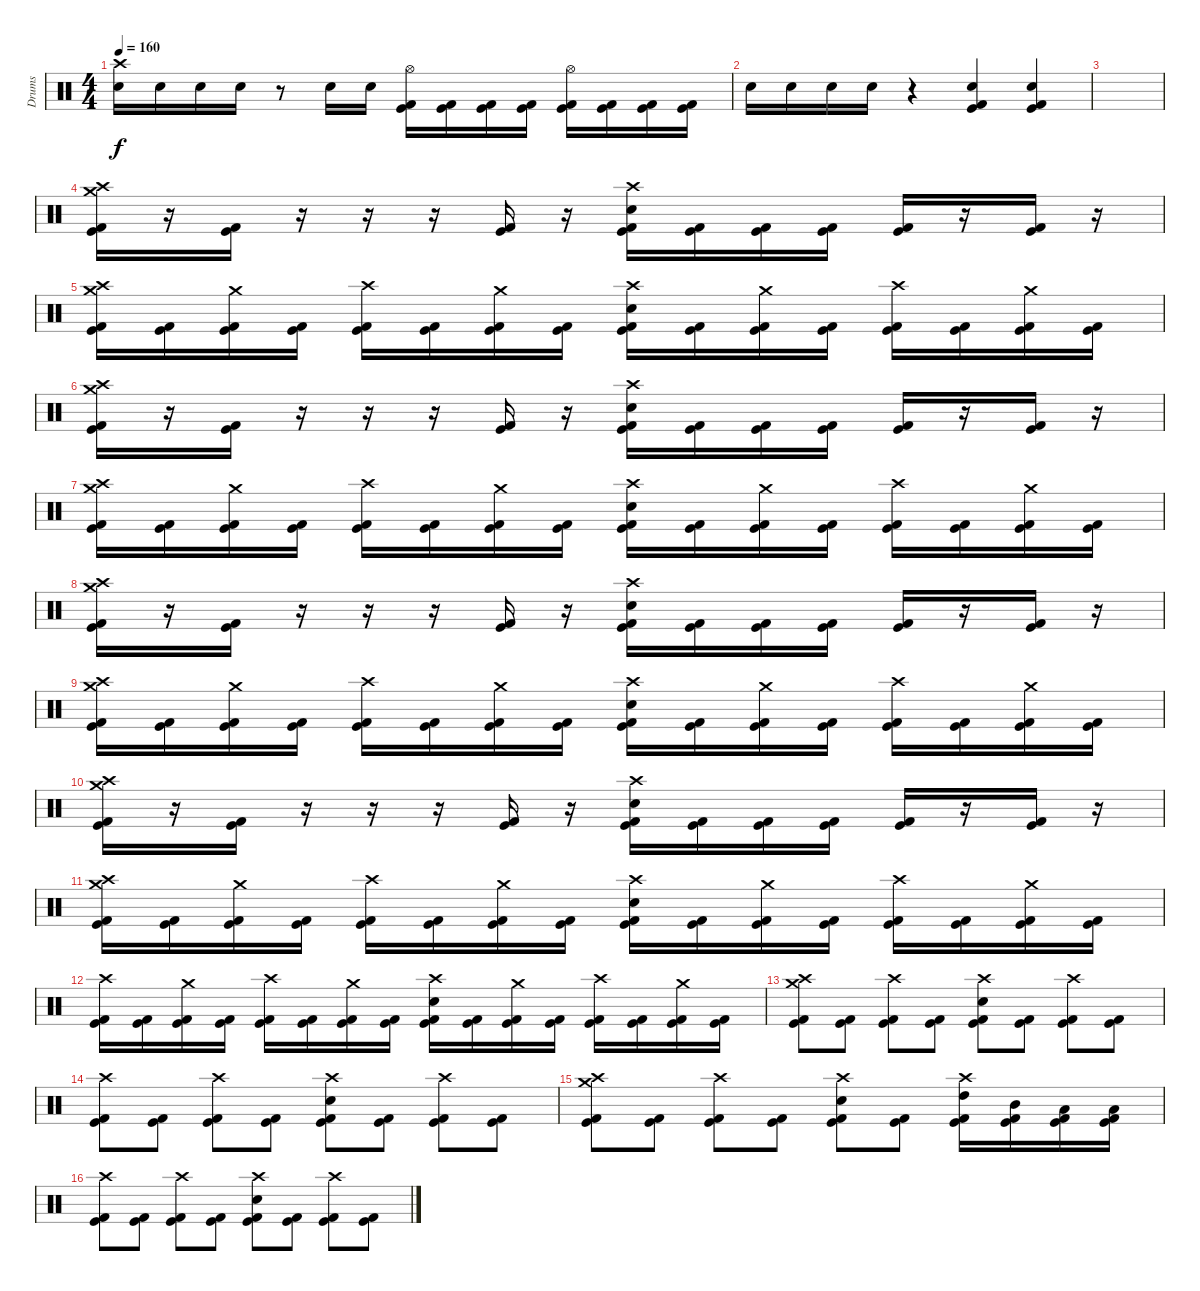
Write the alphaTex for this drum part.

\track ("Drums" "Drums") {instrument percussion}
\staff {score}
\articulation defaults
\ts (4 4)
\tempo 160
\clef neutral
\ks c
("Crash high (hit)" "Snare (hit) 2").16{dy f} "Snare (hit) 2".16 "Snare (hit) 2".16 "Snare (hit) 2".16 r.8 "Snare (hit) 2".16 "Snare (hit) 2".16 ("Hi-Hat (open)" "Kick (hit)" "Kick (hit) 2").16 ("Kick (hit)" "Kick (hit) 2").16 ("Kick (hit)" "Kick (hit) 2").16 ("Kick (hit)" "Kick (hit) 2").16 ("Hi-Hat (open)" "Kick (hit)" "Kick (hit) 2").16 ("Kick (hit)" "Kick (hit) 2").16 ("Kick (hit)" "Kick (hit) 2").16 ("Kick (hit)" "Kick (hit) 2").16 |
"Snare (hit) 2".16 "Snare (hit) 2".16 "Snare (hit) 2".16 "Snare (hit) 2".16 r.4 ("Snare (hit) 2" "Kick (hit)" "Kick (hit) 2").4 ("Snare (hit) 2" "Kick (hit)" "Kick (hit) 2").4 |
|
("Crash medium (hit)" "Crash high (hit)" "Kick (hit)" "Kick (hit) 2").16 r.16 ("Kick (hit)" "Kick (hit) 2").16 r.16 r.16 r.16 ("Kick (hit)" "Kick (hit) 2").16 r.16 ("Crash high (hit)" "Snare (hit) 2" "Kick (hit)" "Kick (hit) 2").16 ("Kick (hit)" "Kick (hit) 2").16 ("Kick (hit)" "Kick (hit) 2").16 ("Kick (hit)" "Kick (hit) 2").16 ("Kick (hit)" "Kick (hit) 2").16 r.16 ("Kick (hit)" "Kick (hit) 2").16 r.16 |
("Crash medium (hit)" "Crash high (hit)" "Kick (hit)" "Kick (hit) 2").16 ("Kick (hit)" "Kick (hit) 2").16 ("Crash medium (hit)" "Kick (hit)" "Kick (hit) 2").16 ("Kick (hit)" "Kick (hit) 2").16 ("Crash high (hit)" "Kick (hit)" "Kick (hit) 2").16 ("Kick (hit)" "Kick (hit) 2").16 ("Crash medium (hit)" "Kick (hit)" "Kick (hit) 2").16 ("Kick (hit)" "Kick (hit) 2").16 ("Crash high (hit)" "Snare (hit) 2" "Kick (hit)" "Kick (hit) 2").16 ("Kick (hit)" "Kick (hit) 2").16 ("Crash medium (hit)" "Kick (hit)" "Kick (hit) 2").16 ("Kick (hit)" "Kick (hit) 2").16 ("Crash high (hit)" "Kick (hit)" "Kick (hit) 2").16 ("Kick (hit)" "Kick (hit) 2").16 ("Crash medium (hit)" "Kick (hit)" "Kick (hit) 2").16 ("Kick (hit)" "Kick (hit) 2").16 |
("Crash medium (hit)" "Crash high (hit)" "Kick (hit)" "Kick (hit) 2").16 r.16 ("Kick (hit)" "Kick (hit) 2").16 r.16 r.16 r.16 ("Kick (hit)" "Kick (hit) 2").16 r.16 ("Crash high (hit)" "Snare (hit) 2" "Kick (hit)" "Kick (hit) 2").16 ("Kick (hit)" "Kick (hit) 2").16 ("Kick (hit)" "Kick (hit) 2").16 ("Kick (hit)" "Kick (hit) 2").16 ("Kick (hit)" "Kick (hit) 2").16 r.16 ("Kick (hit)" "Kick (hit) 2").16 r.16 |
("Crash medium (hit)" "Crash high (hit)" "Kick (hit)" "Kick (hit) 2").16 ("Kick (hit)" "Kick (hit) 2").16 ("Crash medium (hit)" "Kick (hit)" "Kick (hit) 2").16 ("Kick (hit)" "Kick (hit) 2").16 ("Crash high (hit)" "Kick (hit)" "Kick (hit) 2").16 ("Kick (hit)" "Kick (hit) 2").16 ("Crash medium (hit)" "Kick (hit)" "Kick (hit) 2").16 ("Kick (hit)" "Kick (hit) 2").16 ("Crash high (hit)" "Snare (hit) 2" "Kick (hit)" "Kick (hit) 2").16 ("Kick (hit)" "Kick (hit) 2").16 ("Crash medium (hit)" "Kick (hit)" "Kick (hit) 2").16 ("Kick (hit)" "Kick (hit) 2").16 ("Crash high (hit)" "Kick (hit)" "Kick (hit) 2").16 ("Kick (hit)" "Kick (hit) 2").16 ("Crash medium (hit)" "Kick (hit)" "Kick (hit) 2").16 ("Kick (hit)" "Kick (hit) 2").16 |
("Crash medium (hit)" "Crash high (hit)" "Kick (hit)" "Kick (hit) 2").16 r.16 ("Kick (hit)" "Kick (hit) 2").16 r.16 r.16 r.16 ("Kick (hit)" "Kick (hit) 2").16 r.16 ("Crash high (hit)" "Snare (hit) 2" "Kick (hit)" "Kick (hit) 2").16 ("Kick (hit)" "Kick (hit) 2").16 ("Kick (hit)" "Kick (hit) 2").16 ("Kick (hit)" "Kick (hit) 2").16 ("Kick (hit)" "Kick (hit) 2").16 r.16 ("Kick (hit)" "Kick (hit) 2").16 r.16 |
("Crash medium (hit)" "Crash high (hit)" "Kick (hit)" "Kick (hit) 2").16 ("Kick (hit)" "Kick (hit) 2").16 ("Crash medium (hit)" "Kick (hit)" "Kick (hit) 2").16 ("Kick (hit)" "Kick (hit) 2").16 ("Crash high (hit)" "Kick (hit)" "Kick (hit) 2").16 ("Kick (hit)" "Kick (hit) 2").16 ("Crash medium (hit)" "Kick (hit)" "Kick (hit) 2").16 ("Kick (hit)" "Kick (hit) 2").16 ("Crash high (hit)" "Snare (hit) 2" "Kick (hit)" "Kick (hit) 2").16 ("Kick (hit)" "Kick (hit) 2").16 ("Crash medium (hit)" "Kick (hit)" "Kick (hit) 2").16 ("Kick (hit)" "Kick (hit) 2").16 ("Crash high (hit)" "Kick (hit)" "Kick (hit) 2").16 ("Kick (hit)" "Kick (hit) 2").16 ("Crash medium (hit)" "Kick (hit)" "Kick (hit) 2").16 ("Kick (hit)" "Kick (hit) 2").16 |
("Crash medium (hit)" "Crash high (hit)" "Kick (hit)" "Kick (hit) 2").16 r.16 ("Kick (hit)" "Kick (hit) 2").16 r.16 r.16 r.16 ("Kick (hit)" "Kick (hit) 2").16 r.16 ("Crash high (hit)" "Snare (hit) 2" "Kick (hit)" "Kick (hit) 2").16 ("Kick (hit)" "Kick (hit) 2").16 ("Kick (hit)" "Kick (hit) 2").16 ("Kick (hit)" "Kick (hit) 2").16 ("Kick (hit)" "Kick (hit) 2").16 r.16 ("Kick (hit)" "Kick (hit) 2").16 r.16 |
("Crash medium (hit)" "Crash high (hit)" "Kick (hit)" "Kick (hit) 2").16 ("Kick (hit)" "Kick (hit) 2").16 ("Crash medium (hit)" "Kick (hit)" "Kick (hit) 2").16 ("Kick (hit)" "Kick (hit) 2").16 ("Crash high (hit)" "Kick (hit)" "Kick (hit) 2").16 ("Kick (hit)" "Kick (hit) 2").16 ("Crash medium (hit)" "Kick (hit)" "Kick (hit) 2").16 ("Kick (hit)" "Kick (hit) 2").16 ("Crash high (hit)" "Snare (hit) 2" "Kick (hit)" "Kick (hit) 2").16 ("Kick (hit)" "Kick (hit) 2").16 ("Crash medium (hit)" "Kick (hit)" "Kick (hit) 2").16 ("Kick (hit)" "Kick (hit) 2").16 ("Crash high (hit)" "Kick (hit)" "Kick (hit) 2").16 ("Kick (hit)" "Kick (hit) 2").16 ("Crash medium (hit)" "Kick (hit)" "Kick (hit) 2").16 ("Kick (hit)" "Kick (hit) 2").16 |
("Crash high (hit)" "Kick (hit)" "Kick (hit) 2").16 ("Kick (hit)" "Kick (hit) 2").16 ("Crash medium (hit)" "Kick (hit)" "Kick (hit) 2").16 ("Kick (hit)" "Kick (hit) 2").16 ("Crash high (hit)" "Kick (hit)" "Kick (hit) 2").16 ("Kick (hit)" "Kick (hit) 2").16 ("Crash medium (hit)" "Kick (hit)" "Kick (hit) 2").16 ("Kick (hit)" "Kick (hit) 2").16 ("Crash high (hit)" "Snare (hit) 2" "Kick (hit)" "Kick (hit) 2").16 ("Kick (hit)" "Kick (hit) 2").16 ("Crash medium (hit)" "Kick (hit)" "Kick (hit) 2").16 ("Kick (hit)" "Kick (hit) 2").16 ("Crash high (hit)" "Kick (hit)" "Kick (hit) 2").16 ("Kick (hit)" "Kick (hit) 2").16 ("Crash medium (hit)" "Kick (hit)" "Kick (hit) 2").16 ("Kick (hit)" "Kick (hit) 2").16 |
("Crash medium (hit)" "Crash high (hit)" "Kick (hit)" "Kick (hit) 2").8 ("Kick (hit)" "Kick (hit) 2").8 ("Crash high (hit)" "Kick (hit)" "Kick (hit) 2").8 ("Kick (hit)" "Kick (hit) 2").8 ("Crash high (hit)" "Snare (hit) 2" "Kick (hit)" "Kick (hit) 2").8 ("Kick (hit)" "Kick (hit) 2").8 ("Crash high (hit)" "Kick (hit)" "Kick (hit) 2").8 ("Kick (hit)" "Kick (hit) 2").8 |
("Crash high (hit)" "Kick (hit)" "Kick (hit) 2").8 ("Kick (hit)" "Kick (hit) 2").8 ("Crash high (hit)" "Kick (hit)" "Kick (hit) 2").8 ("Kick (hit)" "Kick (hit) 2").8 ("Crash high (hit)" "Snare (hit) 2" "Kick (hit)" "Kick (hit) 2").8 ("Kick (hit)" "Kick (hit) 2").8 ("Crash high (hit)" "Kick (hit)" "Kick (hit) 2").8 ("Kick (hit)" "Kick (hit) 2").8 |
("Crash medium (hit)" "Crash high (hit)" "Kick (hit)" "Kick (hit) 2").8 ("Kick (hit)" "Kick (hit) 2").8 ("Crash high (hit)" "Kick (hit)" "Kick (hit) 2").8 ("Kick (hit)" "Kick (hit) 2").8 ("Crash high (hit)" "Snare (hit) 2" "Kick (hit)" "Kick (hit) 2").8 ("Kick (hit)" "Kick (hit) 2").8 ("Crash high (hit)" "High Tom (hit)" "Kick (hit)" "Kick (hit) 2").16 ("Mid Tom (hit)" "Kick (hit)" "Kick (hit) 2").16 ("Low Tom (hit)" "Kick (hit)" "Kick (hit) 2").16 ("Low Floor Tom (hit)" "Kick (hit)" "Kick (hit) 2").16 |
("Crash high (hit)" "Kick (hit)" "Kick (hit) 2").8 ("Kick (hit)" "Kick (hit) 2").8 ("Crash high (hit)" "Kick (hit)" "Kick (hit) 2").8 ("Kick (hit)" "Kick (hit) 2").8 ("Crash high (hit)" "Snare (hit) 2" "Kick (hit)" "Kick (hit) 2").8 ("Kick (hit)" "Kick (hit) 2").8 ("Crash high (hit)" "Kick (hit)" "Kick (hit) 2").8 ("Kick (hit)" "Kick (hit) 2").8
